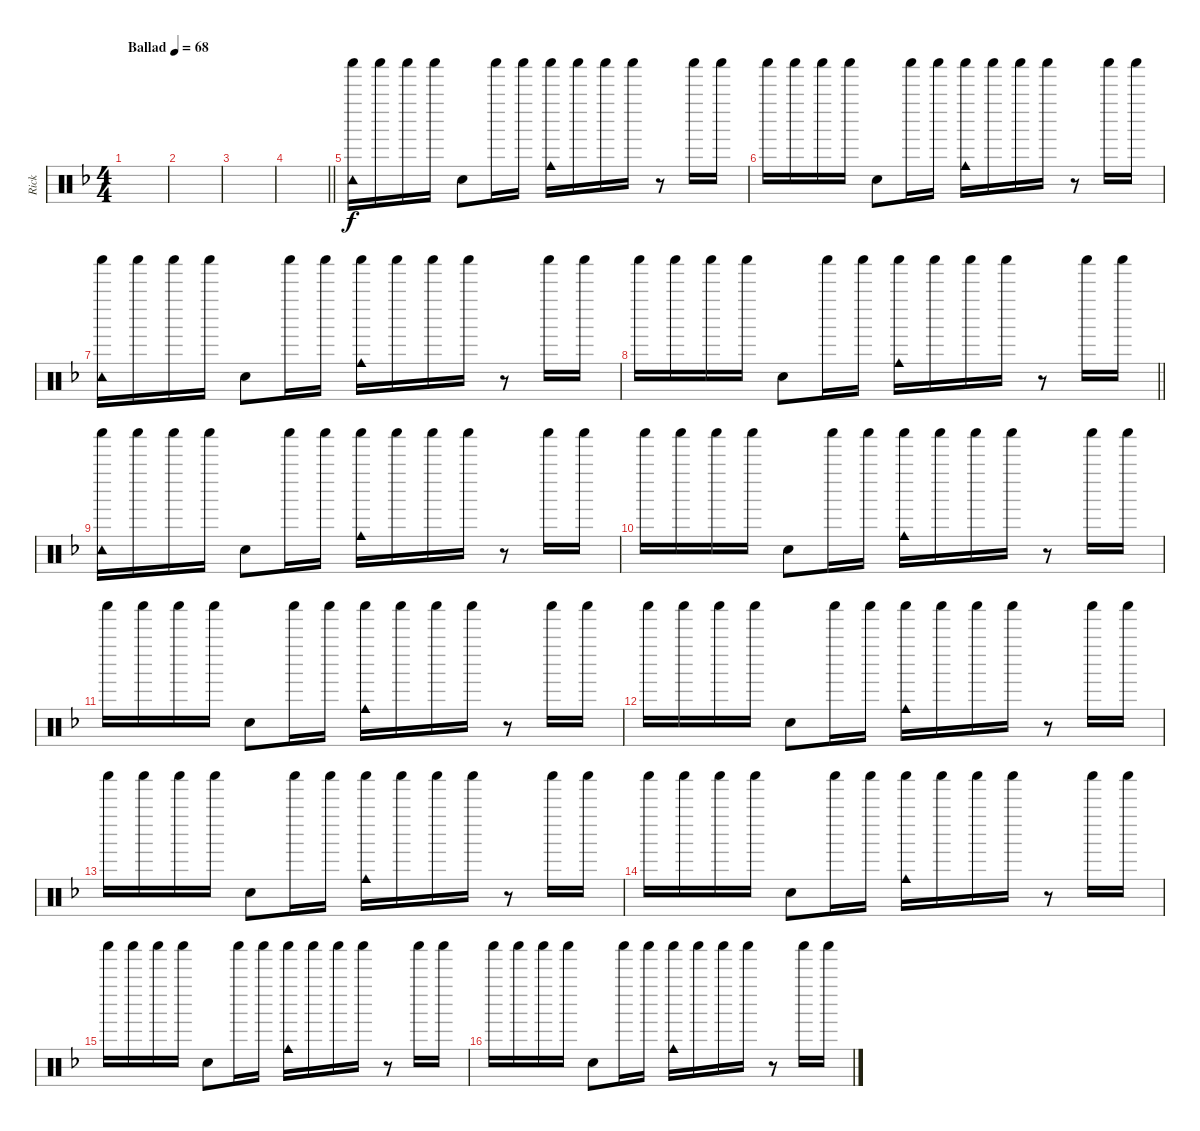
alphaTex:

\track ("Rick" "Rick") {instrument percussion}
\staff {score}
\articulation defaults
\ts (4 4)
\tempo (68 "Ballad")
\clef neutral
\ks dminor
|
|
|
\barLineRight lightlight
|
("Tambourine (hit)" "Shaker (hit)").16 "Shaker (hit)".16 "Shaker (hit)".16 "Shaker (hit)".16 "Hand Clap (hit)".8 "Shaker (hit)".16 "Shaker (hit)".16 ("Cowbell medium (hit)" "Shaker (hit)").16 "Shaker (hit)".16 "Shaker (hit)".16 "Shaker (hit)".16 r.8 "Shaker (hit)".16 "Shaker (hit)".16 |
"Shaker (hit)".16 "Shaker (hit)".16 "Shaker (hit)".16 "Shaker (hit)".16 "Hand Clap (hit)".8 "Shaker (hit)".16 "Shaker (hit)".16 ("Cowbell medium (hit)" "Shaker (hit)").16 "Shaker (hit)".16 "Shaker (hit)".16 "Shaker (hit)".16 r.8 "Shaker (hit)".16 "Shaker (hit)".16 |
("Tambourine (hit)" "Shaker (hit)").16 "Shaker (hit)".16 "Shaker (hit)".16 "Shaker (hit)".16 "Hand Clap (hit)".8 "Shaker (hit)".16 "Shaker (hit)".16 ("Cowbell medium (hit)" "Shaker (hit)").16 "Shaker (hit)".16 "Shaker (hit)".16 "Shaker (hit)".16 r.8 "Shaker (hit)".16 "Shaker (hit)".16 |
\barLineRight lightlight "Shaker (hit)".16 "Shaker (hit)".16 "Shaker (hit)".16 "Shaker (hit)".16 "Hand Clap (hit)".8 "Shaker (hit)".16 "Shaker (hit)".16
("Cowbell medium (hit)" "Shaker (hit)").16 "Shaker (hit)".16 "Shaker (hit)".16 "Shaker (hit)".16 r.8 "Shaker (hit)".16 "Shaker (hit)".16 |
("Tambourine (hit)" "Shaker (hit)").16 "Shaker (hit)".16 "Shaker (hit)".16 "Shaker (hit)".16 "Hand Clap (hit)".8 "Shaker (hit)".16 "Shaker (hit)".16 ("Cowbell medium (hit)" "Shaker (hit)").16 "Shaker (hit)".16 "Shaker (hit)".16 "Shaker (hit)".16 r.8 "Shaker (hit)".16 "Shaker (hit)".16 |
"Shaker (hit)".16 "Shaker (hit)".16 "Shaker (hit)".16 "Shaker (hit)".16 "Hand Clap (hit)".8 "Shaker (hit)".16 "Shaker (hit)".16 ("Cowbell medium (hit)" "Shaker (hit)").16 "Shaker (hit)".16 "Shaker (hit)".16 "Shaker (hit)".16 r.8 "Shaker (hit)".16 "Shaker (hit)".16 |
"Shaker (hit)".16 "Shaker (hit)".16 "Shaker (hit)".16 "Shaker (hit)".16 "Hand Clap (hit)".8 "Shaker (hit)".16 "Shaker (hit)".16 ("Cowbell medium (hit)" "Shaker (hit)").16 "Shaker (hit)".16 "Shaker (hit)".16 "Shaker (hit)".16 r.8 "Shaker (hit)".16 "Shaker (hit)".16 |
"Shaker (hit)".16 "Shaker (hit)".16 "Shaker (hit)".16 "Shaker (hit)".16 "Hand Clap (hit)".8 "Shaker (hit)".16 "Shaker (hit)".16 ("Cowbell medium (hit)" "Shaker (hit)").16 "Shaker (hit)".16 "Shaker (hit)".16 "Shaker (hit)".16 r.8 "Shaker (hit)".16 "Shaker (hit)".16 |
"Shaker (hit)".16 "Shaker (hit)".16 "Shaker (hit)".16 "Shaker (hit)".16 "Hand Clap (hit)".8 "Shaker (hit)".16 "Shaker (hit)".16 ("Cowbell medium (hit)" "Shaker (hit)").16 "Shaker (hit)".16 "Shaker (hit)".16 "Shaker (hit)".16 r.8 "Shaker (hit)".16 "Shaker (hit)".16 |
"Shaker (hit)".16 "Shaker (hit)".16 "Shaker (hit)".16 "Shaker (hit)".16 "Hand Clap (hit)".8 "Shaker (hit)".16 "Shaker (hit)".16 ("Cowbell medium (hit)" "Shaker (hit)").16 "Shaker (hit)".16 "Shaker (hit)".16 "Shaker (hit)".16 r.8 "Shaker (hit)".16 "Shaker (hit)".16 |
"Shaker (hit)".16 "Shaker (hit)".16 "Shaker (hit)".16 "Shaker (hit)".16 "Hand Clap (hit)".8 "Shaker (hit)".16 "Shaker (hit)".16 ("Cowbell medium (hit)" "Shaker (hit)").16 "Shaker (hit)".16 "Shaker (hit)".16 "Shaker (hit)".16 r.8 "Shaker (hit)".16 "Shaker (hit)".16 |
"Shaker (hit)".16 "Shaker (hit)".16 "Shaker (hit)".16 "Shaker (hit)".16 "Hand Clap (hit)".8 "Shaker (hit)".16 "Shaker (hit)".16 ("Cowbell medium (hit)" "Shaker (hit)").16 "Shaker (hit)".16 "Shaker (hit)".16 "Shaker (hit)".16 r.8 "Shaker (hit)".16 "Shaker (hit)".16
